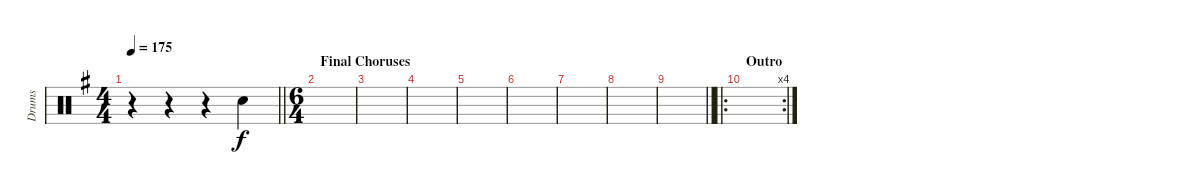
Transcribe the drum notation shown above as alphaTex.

\track ("Drums" "Drums") {instrument percussion}
\staff {score}
\articulation defaults
\ts (4 4)
\tempo 175
\clef neutral
\barLineRight lightlight
\ks eminor
r.4{dy f} r.4 r.4 "Snare (hit) 2".4 |
\ts (6 4)
\section ("" "Final Choruses")
|
|
|
|
|
|
|
\barLineRight lightlight
|
\ro
\rc 4
\section ("" "Outro")
